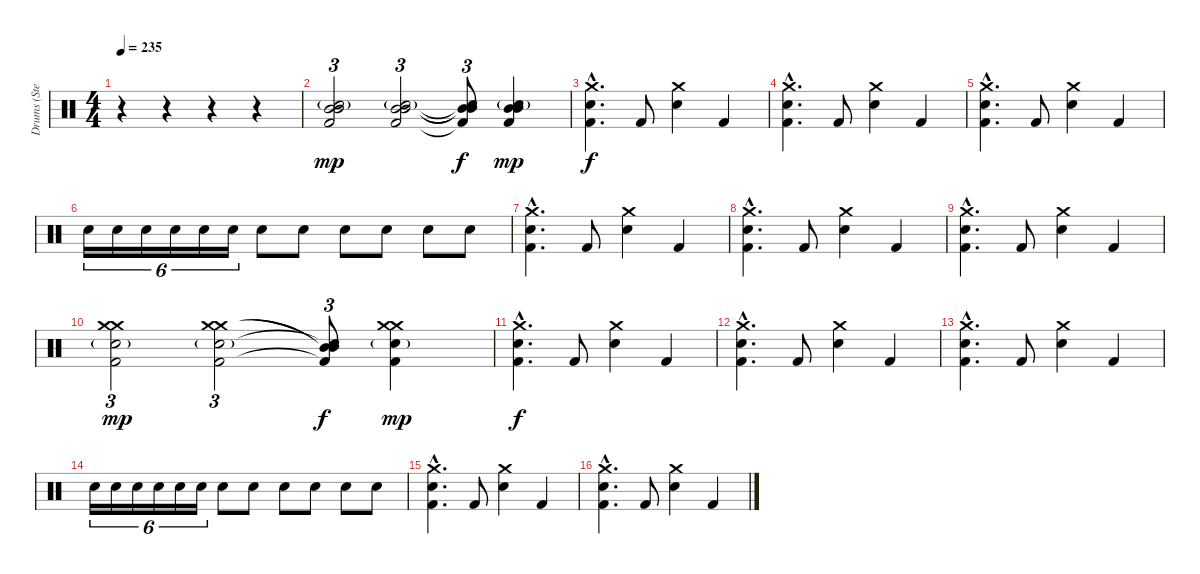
\track ("Drums (Steve Jocz)" "Drums (Ste") {instrument percussion}
\staff {score}
\articulation defaults
\ts (4 4)
\tempo 235
\clef neutral
\ks c
r.4{dy f} r.4 r.4 r.4 |
("Mid Tom (hit)" "Mid Tom (hit)" "Electric Snare (hit)"{g} "Kick (hit) 2").2{tu (3 2) dy mp} ("Mid Tom (hit)" "Mid Tom (hit)" "Electric Snare (hit)"{g} "Kick (hit) 2").2{tu (3 2)} ("Mid Tom (hit)"{t} "Mid Tom (hit)"{t} "Electric Snare (hit)"{t} "Kick (hit) 2"{t}).8{tu (3 2) dy f} ("Mid Tom (hit)" "Mid Tom (hit)" "Electric Snare (hit)"{g} "Kick (hit) 2").4{dy mp} |
("Crash medium (hit)"{hac} "Electric Snare (hit)"{hac} "Kick (hit) 2"{hac}).4{d dy f} "Kick (hit) 2".8 ("Crash medium (hit)" "Electric Snare (hit)").4 "Kick (hit) 2".4 |
("Crash medium (hit)"{hac} "Electric Snare (hit)"{hac} "Kick (hit) 2"{hac}).4{d} "Kick (hit) 2".8 ("Crash medium (hit)" "Electric Snare (hit)").4 "Kick (hit) 2".4 |
("Crash medium (hit)"{hac} "Electric Snare (hit)"{hac} "Kick (hit) 2"{hac}).4{d} "Kick (hit) 2".8 ("Crash medium (hit)" "Electric Snare (hit)").4 "Kick (hit) 2".4 |
"Electric Snare (hit)".16{tu (6 4)} "Electric Snare (hit)".16{tu (6 4)} "Electric Snare (hit)".16{tu (6 4)} "Electric Snare (hit)".16{tu (6 4)} "Electric Snare (hit)".16{tu (6 4)} "Electric Snare (hit)".16{tu (6 4)} "Electric Snare (hit)".8 "Electric Snare (hit)".8 "Electric Snare (hit)".8 "Electric Snare (hit)".8 "Electric Snare (hit)".8 "Electric Snare (hit)".8 |
("Crash medium (hit)"{hac} "Electric Snare (hit)"{hac} "Kick (hit) 2"{hac}).4{d} "Kick (hit) 2".8 ("Crash medium (hit)" "Electric Snare (hit)").4 "Kick (hit) 2".4 |
("Crash medium (hit)"{hac} "Electric Snare (hit)"{hac} "Kick (hit) 2"{hac}).4{d} "Kick (hit) 2".8 ("Crash medium (hit)" "Electric Snare (hit)").4 "Kick (hit) 2".4 |
("Crash medium (hit)"{hac} "Electric Snare (hit)"{hac} "Kick (hit) 2"{hac}).4{d} "Kick (hit) 2".8 ("Crash medium (hit)" "Electric Snare (hit)").4 "Kick (hit) 2".4 |
("Crash medium (hit)" "Crash medium (hit)" "Electric Snare (hit)"{g} "Kick (hit) 2").2{tu (3 2) dy mp} ("Crash medium (hit)" "Crash medium (hit)" "Electric Snare (hit)"{g} "Kick (hit) 2").2{tu (3 2)} ("Mid Tom (hit)"{t} "Mid Tom (hit)"{t} "Electric Snare (hit)"{t} "Kick (hit) 2"{t}).8{tu (3 2) dy f} ("Crash medium (hit)" "Crash medium (hit)" "Electric Snare (hit)"{g} "Kick (hit) 2").4{dy mp} |
("Crash medium (hit)"{hac} "Electric Snare (hit)"{hac} "Kick (hit) 2"{hac}).4{d dy f} "Kick (hit) 2".8 ("Crash medium (hit)" "Electric Snare (hit)").4 "Kick (hit) 2".4 |
("Crash medium (hit)"{hac} "Electric Snare (hit)"{hac} "Kick (hit) 2"{hac}).4{d} "Kick (hit) 2".8 ("Crash medium (hit)" "Electric Snare (hit)").4 "Kick (hit) 2".4 |
("Crash medium (hit)"{hac} "Electric Snare (hit)"{hac} "Kick (hit) 2"{hac}).4{d} "Kick (hit) 2".8 ("Crash medium (hit)" "Electric Snare (hit)").4 "Kick (hit) 2".4 |
"Electric Snare (hit)".16{tu (6 4)} "Electric Snare (hit)".16{tu (6 4)} "Electric Snare (hit)".16{tu (6 4)} "Electric Snare (hit)".16{tu (6 4)} "Electric Snare (hit)".16{tu (6 4)} "Electric Snare (hit)".16{tu (6 4)} "Electric Snare (hit)".8 "Electric Snare (hit)".8 "Electric Snare (hit)".8 "Electric Snare (hit)".8 "Electric Snare (hit)".8 "Electric Snare (hit)".8 |
("Crash medium (hit)"{hac} "Electric Snare (hit)"{hac} "Kick (hit) 2"{hac}).4{d} "Kick (hit) 2".8 ("Crash medium (hit)" "Electric Snare (hit)").4 "Kick (hit) 2".4 |
("Crash medium (hit)"{hac} "Electric Snare (hit)"{hac} "Kick (hit) 2"{hac}).4{d} "Kick (hit) 2".8 ("Crash medium (hit)" "Electric Snare (hit)").4 "Kick (hit) 2".4
